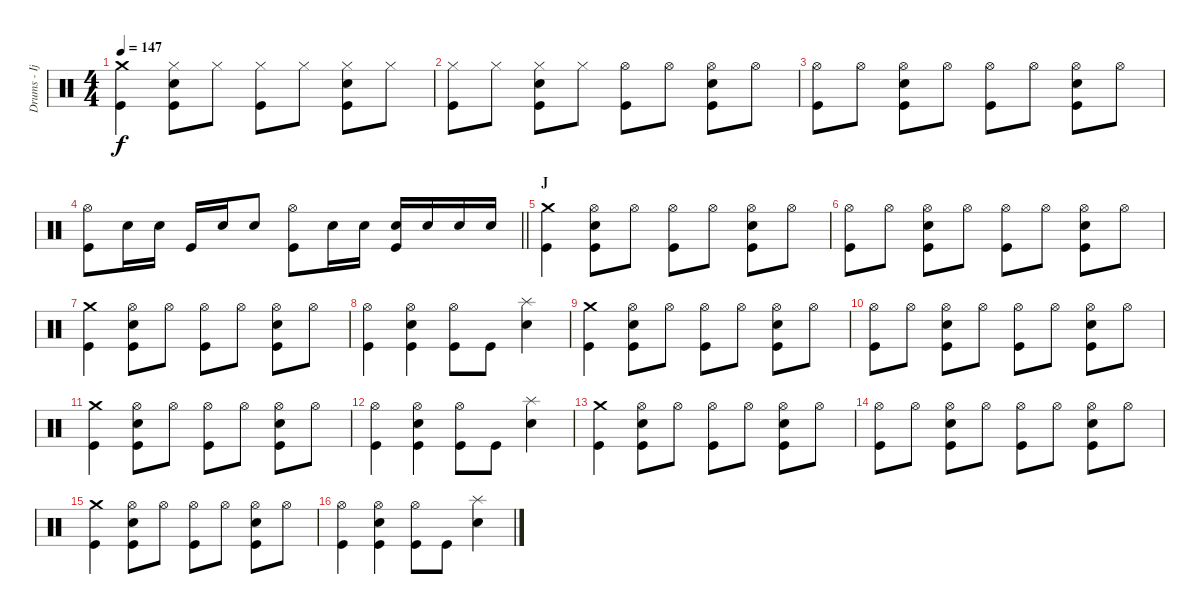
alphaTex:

\track ("Drums - Ijichi" "Drums - Ij") {instrument percussion}
\staff {score}
\articulation defaults
\ts (4 4)
\tempo 147
\clef neutral
\ks c
("Crash medium (hit)" "Kick (hit)").4{dy f} ("Hi-Hat (closed)" "Electric Snare (hit)" "Kick (hit)").8 "Hi-Hat (closed)".8 ("Hi-Hat (closed)" "Kick (hit)").8 "Hi-Hat (closed)".8 ("Hi-Hat (closed)" "Electric Snare (hit)" "Kick (hit)").8 "Hi-Hat (closed)".8 |
("Hi-Hat (closed)" "Kick (hit)").8 "Hi-Hat (closed)".8 ("Hi-Hat (closed)" "Electric Snare (hit)" "Kick (hit)").8 "Hi-Hat (closed)".8 ("Hi-Hat (open)" "Kick (hit)").8 "Hi-Hat (open)".8 ("Hi-Hat (open)" "Electric Snare (hit)" "Kick (hit)").8 "Hi-Hat (open)".8 |
("Hi-Hat (open)" "Kick (hit)").8 "Hi-Hat (open)".8 ("Hi-Hat (open)" "Electric Snare (hit)" "Kick (hit)").8 "Hi-Hat (open)".8 ("Hi-Hat (open)" "Kick (hit)").8 "Hi-Hat (open)".8 ("Hi-Hat (open)" "Electric Snare (hit)" "Kick (hit)").8 "Hi-Hat (open)".8 |
\barLineRight lightlight
("Hi-Hat (open)" "Kick (hit)").8 "Electric Snare (hit)".16 "Electric Snare (hit)".16 "Kick (hit)".16 "Electric Snare (hit)".16 "Electric Snare (hit)".8 ("Hi-Hat (open)" "Kick (hit)").8 "Electric Snare (hit)".16 "Electric Snare (hit)".16 ("Electric Snare (hit)" "Kick (hit)").16 "Electric Snare (hit)".16 "Electric Snare (hit)".16 "Electric Snare (hit)".16 |
\section ("" "J")
("Crash medium (hit)" "Kick (hit)").4 ("Hi-Hat (open)" "Electric Snare (hit)" "Kick (hit)").8 "Hi-Hat (open)".8 ("Hi-Hat (open)" "Kick (hit)").8 "Hi-Hat (open)".8 ("Hi-Hat (open)" "Electric Snare (hit)" "Kick (hit)").8 "Hi-Hat (open)".8 |
("Hi-Hat (open)" "Kick (hit)").8 "Hi-Hat (open)".8 ("Hi-Hat (open)" "Electric Snare (hit)" "Kick (hit)").8 "Hi-Hat (open)".8 ("Hi-Hat (open)" "Kick (hit)").8 "Hi-Hat (open)".8 ("Hi-Hat (open)" "Electric Snare (hit)" "Kick (hit)").8 "Hi-Hat (open)".8 |
("Crash medium (hit)" "Kick (hit)").4 ("Hi-Hat (open)" "Electric Snare (hit)" "Kick (hit)").8 "Hi-Hat (open)".8 ("Hi-Hat (open)" "Kick (hit)").8 "Hi-Hat (open)".8 ("Hi-Hat (open)" "Electric Snare (hit)" "Kick (hit)").8 "Hi-Hat (open)".8 |
("Hi-Hat (open)" "Kick (hit)").4 ("Hi-Hat (open)" "Electric Snare (hit)" "Kick (hit)").4 ("Hi-Hat (open)" "Kick (hit)").8 "Kick (hit)".8 ("Splash (hit)" "Electric Snare (hit)").4 |
("Crash medium (hit)" "Kick (hit)").4 ("Hi-Hat (open)" "Electric Snare (hit)" "Kick (hit)").8 "Hi-Hat (open)".8 ("Hi-Hat (open)" "Kick (hit)").8 "Hi-Hat (open)".8 ("Hi-Hat (open)" "Electric Snare (hit)" "Kick (hit)").8 "Hi-Hat (open)".8 |
("Hi-Hat (open)" "Kick (hit)").8 "Hi-Hat (open)".8 ("Hi-Hat (open)" "Electric Snare (hit)" "Kick (hit)").8 "Hi-Hat (open)".8 ("Hi-Hat (open)" "Kick (hit)").8 "Hi-Hat (open)".8 ("Hi-Hat (open)" "Electric Snare (hit)" "Kick (hit)").8 "Hi-Hat (open)".8 |
("Crash medium (hit)" "Kick (hit)").4 ("Hi-Hat (open)" "Electric Snare (hit)" "Kick (hit)").8 "Hi-Hat (open)".8 ("Hi-Hat (open)" "Kick (hit)").8 "Hi-Hat (open)".8 ("Hi-Hat (open)" "Electric Snare (hit)" "Kick (hit)").8 "Hi-Hat (open)".8 |
("Hi-Hat (open)" "Kick (hit)").4 ("Hi-Hat (open)" "Electric Snare (hit)" "Kick (hit)").4 ("Hi-Hat (open)" "Kick (hit)").8 "Kick (hit)".8 ("Splash (hit)" "Electric Snare (hit)").4 |
("Crash medium (hit)" "Kick (hit)").4 ("Hi-Hat (open)" "Electric Snare (hit)" "Kick (hit)").8 "Hi-Hat (open)".8 ("Hi-Hat (open)" "Kick (hit)").8 "Hi-Hat (open)".8 ("Hi-Hat (open)" "Electric Snare (hit)" "Kick (hit)").8 "Hi-Hat (open)".8 |
("Hi-Hat (open)" "Kick (hit)").8 "Hi-Hat (open)".8 ("Hi-Hat (open)" "Electric Snare (hit)" "Kick (hit)").8 "Hi-Hat (open)".8 ("Hi-Hat (open)" "Kick (hit)").8 "Hi-Hat (open)".8 ("Hi-Hat (open)" "Electric Snare (hit)" "Kick (hit)").8 "Hi-Hat (open)".8 |
("Crash medium (hit)" "Kick (hit)").4 ("Hi-Hat (open)" "Electric Snare (hit)" "Kick (hit)").8 "Hi-Hat (open)".8 ("Hi-Hat (open)" "Kick (hit)").8 "Hi-Hat (open)".8 ("Hi-Hat (open)" "Electric Snare (hit)" "Kick (hit)").8 "Hi-Hat (open)".8 |
("Hi-Hat (open)" "Kick (hit)").4 ("Hi-Hat (open)" "Electric Snare (hit)" "Kick (hit)").4 ("Hi-Hat (open)" "Kick (hit)").8 "Kick (hit)".8 ("Splash (hit)" "Electric Snare (hit)").4
